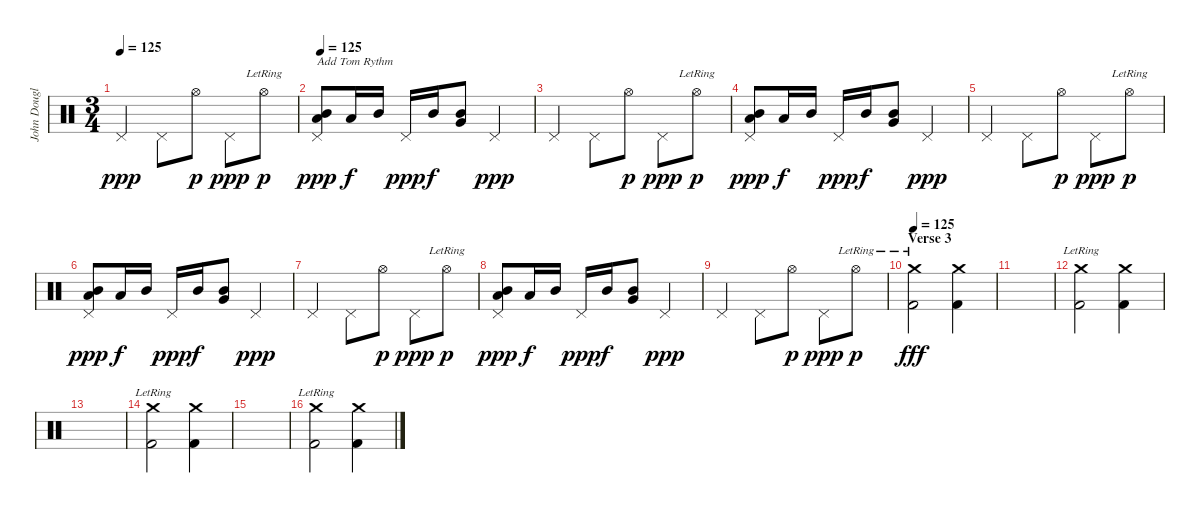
\track ("John Douglas (Drums)" "John Dougl") {instrument percussion}
\staff {score}
\articulation defaults
\ts (3 4)
\tempo 125
\clef neutral
\ks c "Pedal Hi-Hat (hit)".4{dy ppp} "Pedal Hi-Hat (hit)".8 "Hi-Hat (open)".8{dy p} "Pedal Hi-Hat (hit)".8{dy ppp} "Hi-Hat (open)"{lr}.8{dy p}
|
\tempo 125
("Pedal Hi-Hat (hit)" "Mid Tom (hit)" "Low Tom (hit)").8{txt "Add Tom Rythm" dy ppp} "Low Tom (hit)".16{dy f} "Mid Tom (hit)".16 "Pedal Hi-Hat (hit)".16{dy ppp} "Mid Tom (hit)".16{dy f} ("Mid Tom (hit)" "Very Low Tom (hit)").8 "Pedal Hi-Hat (hit)".4{dy ppp} |
"Pedal Hi-Hat (hit)".4 "Pedal Hi-Hat (hit)".8 "Hi-Hat (open)".8{dy p} "Pedal Hi-Hat (hit)".8{dy ppp} "Hi-Hat (open)"{lr}.8{dy p} |
("Pedal Hi-Hat (hit)" "Mid Tom (hit)" "Low Tom (hit)").8{dy ppp} "Low Tom (hit)".16{dy f} "Mid Tom (hit)".16 "Pedal Hi-Hat (hit)".16{dy ppp} "Mid Tom (hit)".16{dy f} ("Mid Tom (hit)" "Very Low Tom (hit)").8 "Pedal Hi-Hat (hit)".4{dy ppp} |
"Pedal Hi-Hat (hit)".4 "Pedal Hi-Hat (hit)".8 "Hi-Hat (open)".8{dy p} "Pedal Hi-Hat (hit)".8{dy ppp} "Hi-Hat (open)"{lr}.8{dy p} |
("Pedal Hi-Hat (hit)" "Mid Tom (hit)" "Low Tom (hit)").8{dy ppp} "Low Tom (hit)".16{dy f} "Mid Tom (hit)".16 "Pedal Hi-Hat (hit)".16{dy ppp} "Mid Tom (hit)".16{dy f} ("Mid Tom (hit)" "Very Low Tom (hit)").8 "Pedal Hi-Hat (hit)".4{dy ppp} |
"Pedal Hi-Hat (hit)".4 "Pedal Hi-Hat (hit)".8 "Hi-Hat (open)".8{dy p} "Pedal Hi-Hat (hit)".8{dy ppp} "Hi-Hat (open)"{lr}.8{dy p} |
("Pedal Hi-Hat (hit)" "Mid Tom (hit)" "Low Tom (hit)").8{dy ppp} "Low Tom (hit)".16{dy f} "Mid Tom (hit)".16 "Pedal Hi-Hat (hit)".16{dy ppp} "Mid Tom (hit)".16{dy f} ("Mid Tom (hit)" "Very Low Tom (hit)").8 "Pedal Hi-Hat (hit)".4{dy ppp} |
"Pedal Hi-Hat (hit)".4 "Pedal Hi-Hat (hit)".8 "Hi-Hat (open)".8{dy p} "Pedal Hi-Hat (hit)".8{dy ppp} "Hi-Hat (open)"{lr}.8{dy p} |
\section ("" "Verse 3")
\tempo 125
("Crash medium (hit)"{lr} "Kick (hit) 2").2{dy fff} ("Crash medium (hit)" "Kick (hit) 2").4 |
|
("Crash medium (hit)"{lr} "Kick (hit) 2").2 ("Crash medium (hit)" "Kick (hit) 2").4 |
|
("Crash medium (hit)"{lr} "Kick (hit) 2").2 ("Crash medium (hit)" "Kick (hit) 2").4 |
|
("Crash medium (hit)"{lr} "Kick (hit) 2").2 ("Crash medium (hit)" "Kick (hit) 2").4
